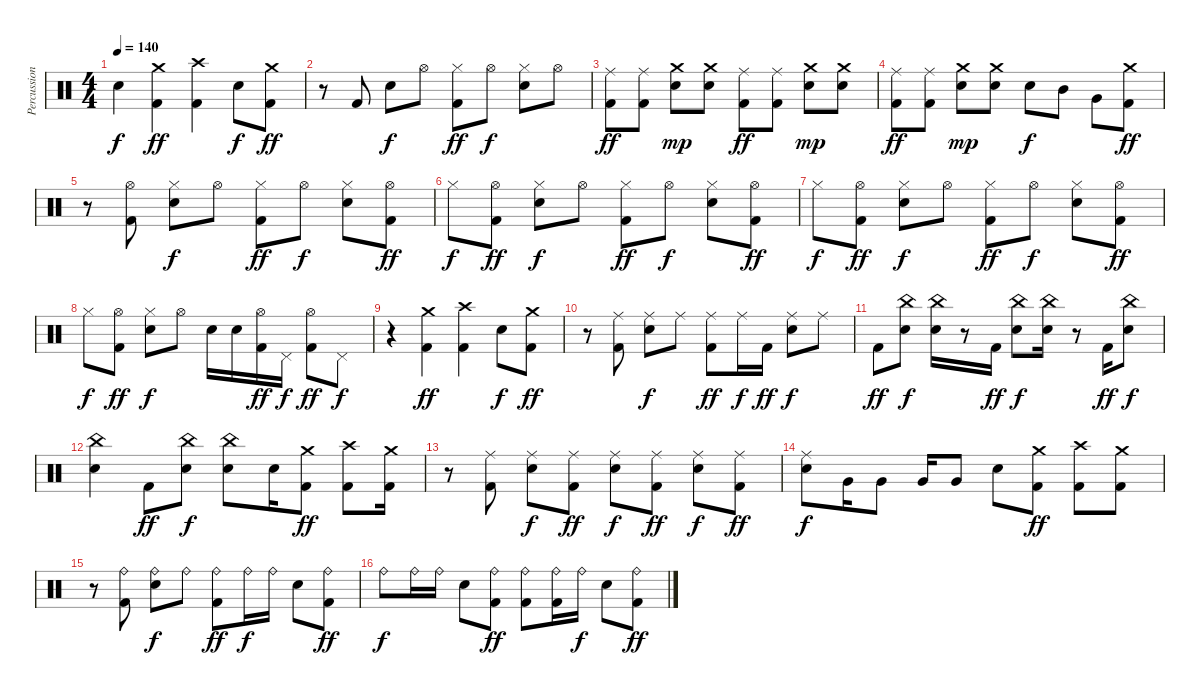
\track ("Percussion" "Percussion") {instrument percussion}
\staff {score}
\articulation defaults
\ts (4 4)
\tempo 140
\clef neutral
\ks c "Snare (hit)"{t}.4{dy f}
("Kick (hit) 2" "Crash medium (hit)").4{dy ff} ("Kick (hit) 2" "Crash high (hit)").4 "Snare (hit) 2".8{dy f} ("Kick (hit) 2" "Crash medium (hit)").8{dy ff} |
r.8 "Kick (hit) 2".8 "Snare (hit) 2".8{dy f} "Hi-Hat (open)".8 ("Kick (hit) 2" "Hi-Hat (closed)").8{dy ff} "Hi-Hat (open)".8{dy f} ("Snare (hit) 2" "Hi-Hat (closed)").8 "Hi-Hat (open)".8 |
("Kick (hit) 2" "Ride (middle)").8{dy ff} ("Kick (hit) 2" "Ride (middle)").8 ("Snare (hit) 2" "Crash medium (hit)").8{dy mp} ("Snare (hit) 2" "Crash medium (hit)").8 ("Kick (hit) 2" "Ride (middle)").8{dy ff} ("Kick (hit) 2" "Ride (middle)").8 ("Snare (hit) 2" "Crash medium (hit)").8{dy mp} ("Snare (hit) 2" "Crash medium (hit)").8 |
("Kick (hit) 2" "Ride (middle)").8{dy ff} ("Kick (hit) 2" "Ride (middle)").8 ("Snare (hit) 2" "Crash medium (hit)").8{dy mp} ("Snare (hit) 2" "Crash medium (hit)").8 "Snare (hit) 2".8{dy f} "Mid Tom (hit)".8 "Very Low Tom (hit)".8 ("Kick (hit) 2" "Crash medium (hit)").8{dy ff} |
r.8 ("Kick (hit) 2" "Hi-Hat (open)").8 ("Snare (hit) 2" "Hi-Hat (closed)").8{dy f} "Hi-Hat (open)".8 ("Kick (hit) 2" "Hi-Hat (closed)").8{dy ff} "Hi-Hat (open)".8{dy f} ("Snare (hit) 2" "Hi-Hat (closed)").8 ("Kick (hit) 2" "Hi-Hat (open)").8{dy ff} |
"Hi-Hat (closed)".8{dy f} ("Kick (hit) 2" "Hi-Hat (open)").8{dy ff} ("Snare (hit) 2" "Hi-Hat (closed)").8{dy f} "Hi-Hat (open)".8 ("Kick (hit) 2" "Hi-Hat (closed)").8{dy ff} "Hi-Hat (open)".8{dy f} ("Snare (hit) 2" "Hi-Hat (closed)").8 ("Kick (hit) 2" "Hi-Hat (open)").8{dy ff} |
"Hi-Hat (closed)".8{dy f} ("Kick (hit) 2" "Hi-Hat (open)").8{dy ff} ("Snare (hit) 2" "Hi-Hat (closed)").8{dy f} "Hi-Hat (open)".8 ("Kick (hit) 2" "Hi-Hat (closed)").8{dy ff} "Hi-Hat (open)".8{dy f} ("Snare (hit) 2" "Hi-Hat (closed)").8 ("Kick (hit) 2" "Hi-Hat (open)").8{dy ff} |
"Hi-Hat (closed)".8{dy f} ("Kick (hit) 2" "Hi-Hat (open)").8{dy ff} ("Snare (hit) 2" "Hi-Hat (closed)").8{dy f} "Hi-Hat (open)".8 "Snare (hit) 2".16 "Snare (hit) 2".16 ("Kick (hit) 2" "Hi-Hat (open)").16{dy ff} "Pedal Hi-Hat (hit)".16{dy f} ("Kick (hit) 2" "Hi-Hat (open)").8{dy ff} "Pedal Hi-Hat (hit)".8{dy f} |
r.4 ("Kick (hit) 2" "Crash medium (hit)").4{dy ff} ("Kick (hit) 2" "Crash high (hit)").4 "Snare (hit) 2".8{dy f} ("Kick (hit) 2" "Crash medium (hit)").8{dy ff} |
r.8 ("Kick (hit) 2" "Ride (middle)").8 ("Snare (hit) 2" "Ride (middle)").8{dy f} "Ride (middle)".8 ("Kick (hit) 2" "Ride (middle)").8{dy ff} "Ride (middle)".16{dy f} "Kick (hit) 2".16{dy ff} ("Snare (hit) 2" "Ride (middle)").8{dy f} "Ride (middle)".8 |
"Kick (hit) 2".8{dy ff} ("Snare (hit) 2" "China (hit)").8{dy f} ("Snare (hit) 2" "China (hit)").16 r.8 "Kick (hit) 2".16{dy ff} ("Snare (hit) 2" "China (hit)").8{dy f} ("Snare (hit) 2" "China (hit)").16 r.8 "Kick (hit) 2".16{dy ff} ("Snare (hit) 2" "China (hit)").8{dy f} |
("Snare (hit) 2" "China (hit)").4 "Kick (hit) 2".8{dy ff} ("Snare (hit) 2" "China (hit)").8{dy f} ("Snare (hit) 2" "China (hit)").8 "Snare (hit) 2".16 ("Kick (hit) 2" "Crash medium (hit)").8{dy ff} ("Kick (hit) 2" "Crash high (hit)").8 ("Kick (hit) 2" "Crash medium (hit)").16 |
r.8 ("Kick (hit) 2" "Ride (middle)").8 ("Snare (hit) 2" "Ride (middle)").8{dy f} ("Kick (hit) 2" "Ride (middle)").8{dy ff} ("Snare (hit) 2" "Ride (middle)").8{dy f} ("Kick (hit) 2" "Ride (middle)").8{dy ff} ("Snare (hit) 2" "Ride (middle)").8{dy f} ("Kick (hit) 2" "Ride (middle)").8{dy ff} |
("Snare (hit) 2" "Ride (middle)").8{dy f} "Very Low Tom (hit)".16 "Very Low Tom (hit)".8 "Very Low Tom (hit)".16 "Very Low Tom (hit)".8 "Snare (hit) 2".8 ("Kick (hit) 2" "Crash medium (hit)").8{dy ff} ("Kick (hit) 2" "Crash high (hit)").8 ("Kick (hit) 2" "Crash medium (hit)").8 |
r.8 ("Kick (hit) 2" "Ride (bell)").8 ("Snare (hit) 2" "Ride (bell)").8{dy f} "Ride (bell)".8 ("Kick (hit) 2" "Ride (bell)").8{dy ff} "Ride (bell)".16{dy f} "Ride (bell)".16 "Snare (hit) 2".8 ("Kick (hit) 2" "Ride (bell)").8{dy ff} |
"Ride (bell)".8{dy f} "Ride (bell)".16 "Ride (bell)".16 "Snare (hit) 2".8 ("Kick (hit) 2" "Ride (bell)").8{dy ff} ("Kick (hit) 2" "Ride (bell)").8 ("Kick (hit) 2" "Ride (bell)").16 "Ride (bell)".16{dy f} "Snare (hit) 2".8 ("Kick (hit) 2" "Ride (bell)").8{dy ff}
